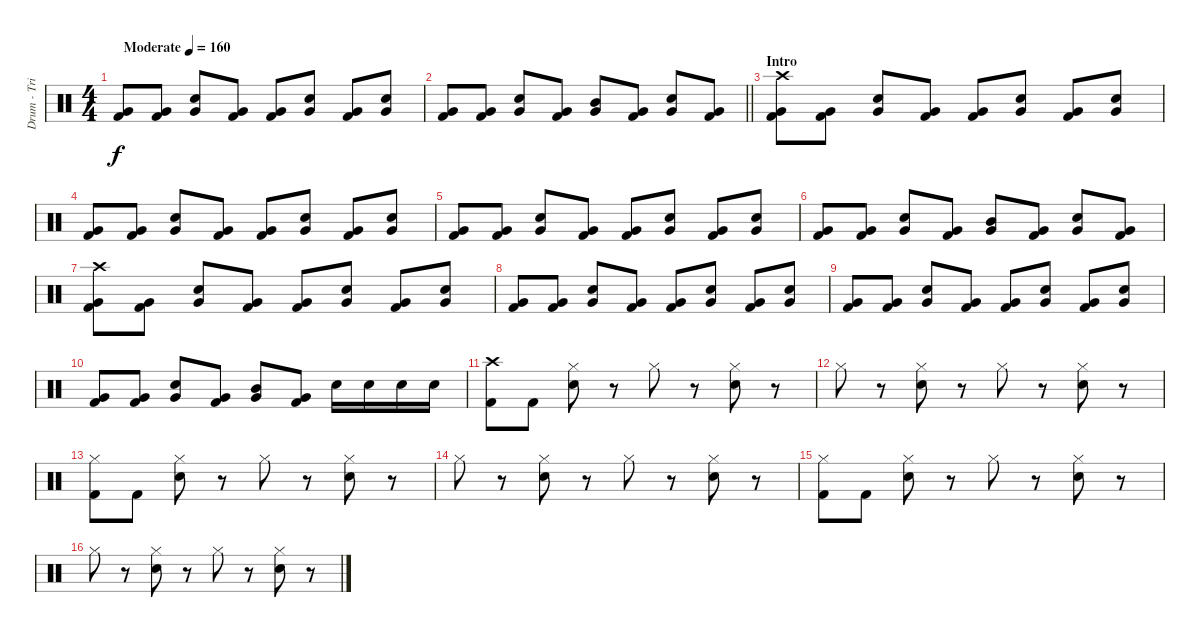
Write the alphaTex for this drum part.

\track ("Drum - Trian" "Drum - Tri") {instrument percussion}
\staff {score}
\articulation defaults
\ts (4 4)
\tempo (160 "Moderate")
\clef neutral
\ks c
("Very Low Tom (hit)" "Kick (hit) 2").8{dy f} ("Very Low Tom (hit)" "Kick (hit) 2").8 ("Electric Snare (hit)" "Very Low Tom (hit)").8 ("Very Low Tom (hit)" "Kick (hit) 2").8 ("Very Low Tom (hit)" "Kick (hit) 2").8 ("Electric Snare (hit)" "Very Low Tom (hit)").8 ("Very Low Tom (hit)" "Kick (hit) 2").8 ("Electric Snare (hit)" "Very Low Tom (hit)").8 |
\barLineRight lightlight
("Very Low Tom (hit)" "Kick (hit) 2").8 ("Very Low Tom (hit)" "Kick (hit) 2").8 ("Electric Snare (hit)" "Very Low Tom (hit)").8 ("Very Low Tom (hit)" "Kick (hit) 2").8 ("Very Low Tom (hit)" "Mid Tom (hit)").8 ("Very Low Tom (hit)" "Kick (hit) 2").8 ("Electric Snare (hit)" "Very Low Tom (hit)").8 ("Very Low Tom (hit)" "Kick (hit) 2").8 |
\section ("" "Intro")
("Crash high (hit)" "Very Low Tom (hit)" "Kick (hit) 2").8 ("Very Low Tom (hit)" "Kick (hit) 2").8 ("Electric Snare (hit)" "Very Low Tom (hit)").8 ("Very Low Tom (hit)" "Kick (hit) 2").8 ("Very Low Tom (hit)" "Kick (hit) 2").8 ("Electric Snare (hit)" "Very Low Tom (hit)").8 ("Very Low Tom (hit)" "Kick (hit) 2").8 ("Electric Snare (hit)" "Very Low Tom (hit)").8 |
("Very Low Tom (hit)" "Kick (hit) 2").8 ("Very Low Tom (hit)" "Kick (hit) 2").8 ("Electric Snare (hit)" "Very Low Tom (hit)").8 ("Very Low Tom (hit)" "Kick (hit) 2").8 ("Very Low Tom (hit)" "Kick (hit) 2").8 ("Electric Snare (hit)" "Very Low Tom (hit)").8 ("Very Low Tom (hit)" "Kick (hit) 2").8 ("Electric Snare (hit)" "Very Low Tom (hit)").8 |
("Very Low Tom (hit)" "Kick (hit) 2").8 ("Very Low Tom (hit)" "Kick (hit) 2").8 ("Electric Snare (hit)" "Very Low Tom (hit)").8 ("Very Low Tom (hit)" "Kick (hit) 2").8 ("Very Low Tom (hit)" "Kick (hit) 2").8 ("Electric Snare (hit)" "Very Low Tom (hit)").8 ("Very Low Tom (hit)" "Kick (hit) 2").8 ("Electric Snare (hit)" "Very Low Tom (hit)").8 |
("Very Low Tom (hit)" "Kick (hit) 2").8 ("Very Low Tom (hit)" "Kick (hit) 2").8 ("Electric Snare (hit)" "Very Low Tom (hit)").8 ("Very Low Tom (hit)" "Kick (hit) 2").8 ("Very Low Tom (hit)" "Mid Tom (hit)").8 ("Very Low Tom (hit)" "Kick (hit) 2").8 ("Electric Snare (hit)" "Very Low Tom (hit)").8 ("Very Low Tom (hit)" "Kick (hit) 2").8 |
("Crash high (hit)" "Very Low Tom (hit)" "Kick (hit) 2").8 ("Very Low Tom (hit)" "Kick (hit) 2").8 ("Electric Snare (hit)" "Very Low Tom (hit)").8 ("Very Low Tom (hit)" "Kick (hit) 2").8 ("Very Low Tom (hit)" "Kick (hit) 2").8 ("Electric Snare (hit)" "Very Low Tom (hit)").8 ("Very Low Tom (hit)" "Kick (hit) 2").8 ("Electric Snare (hit)" "Very Low Tom (hit)").8 |
("Very Low Tom (hit)" "Kick (hit) 2").8 ("Very Low Tom (hit)" "Kick (hit) 2").8 ("Electric Snare (hit)" "Very Low Tom (hit)").8 ("Very Low Tom (hit)" "Kick (hit) 2").8 ("Very Low Tom (hit)" "Kick (hit) 2").8 ("Electric Snare (hit)" "Very Low Tom (hit)").8 ("Very Low Tom (hit)" "Kick (hit) 2").8 ("Electric Snare (hit)" "Very Low Tom (hit)").8 |
("Very Low Tom (hit)" "Kick (hit) 2").8 ("Very Low Tom (hit)" "Kick (hit) 2").8 ("Electric Snare (hit)" "Very Low Tom (hit)").8 ("Very Low Tom (hit)" "Kick (hit) 2").8 ("Very Low Tom (hit)" "Kick (hit) 2").8 ("Electric Snare (hit)" "Very Low Tom (hit)").8 ("Very Low Tom (hit)" "Kick (hit) 2").8 ("Electric Snare (hit)" "Very Low Tom (hit)").8 |
("Very Low Tom (hit)" "Kick (hit) 2").8 ("Very Low Tom (hit)" "Kick (hit) 2").8 ("Electric Snare (hit)" "Very Low Tom (hit)").8 ("Very Low Tom (hit)" "Kick (hit) 2").8 ("Very Low Tom (hit)" "Mid Tom (hit)").8 ("Very Low Tom (hit)" "Kick (hit) 2").8 "Electric Snare (hit)".16 "Electric Snare (hit)".16 "Electric Snare (hit)".16 "Electric Snare (hit)".16 |
("Crash high (hit)" "Kick (hit) 2").8 "Kick (hit) 2".8 ("Hi-Hat (closed)" "Electric Snare (hit)").8 r.8 "Hi-Hat (closed)".8 r.8 ("Hi-Hat (closed)" "Electric Snare (hit)").8 r.8 |
"Hi-Hat (closed)".8 r.8 ("Hi-Hat (closed)" "Electric Snare (hit)").8 r.8 "Hi-Hat (closed)".8 r.8 ("Hi-Hat (closed)" "Electric Snare (hit)").8 r.8 |
("Hi-Hat (closed)" "Kick (hit) 2").8 "Kick (hit) 2".8 ("Hi-Hat (closed)" "Electric Snare (hit)").8 r.8 "Hi-Hat (closed)".8 r.8 ("Hi-Hat (closed)" "Electric Snare (hit)").8 r.8 |
"Hi-Hat (closed)".8 r.8 ("Hi-Hat (closed)" "Electric Snare (hit)").8 r.8 "Hi-Hat (closed)".8 r.8 ("Hi-Hat (closed)" "Electric Snare (hit)").8 r.8 |
("Hi-Hat (closed)" "Kick (hit) 2").8 "Kick (hit) 2".8 ("Hi-Hat (closed)" "Electric Snare (hit)").8 r.8 "Hi-Hat (closed)".8 r.8 ("Hi-Hat (closed)" "Electric Snare (hit)").8 r.8 |
"Hi-Hat (closed)".8 r.8 ("Hi-Hat (closed)" "Electric Snare (hit)").8 r.8 "Hi-Hat (closed)".8 r.8 ("Hi-Hat (closed)" "Electric Snare (hit)").8 r.8
